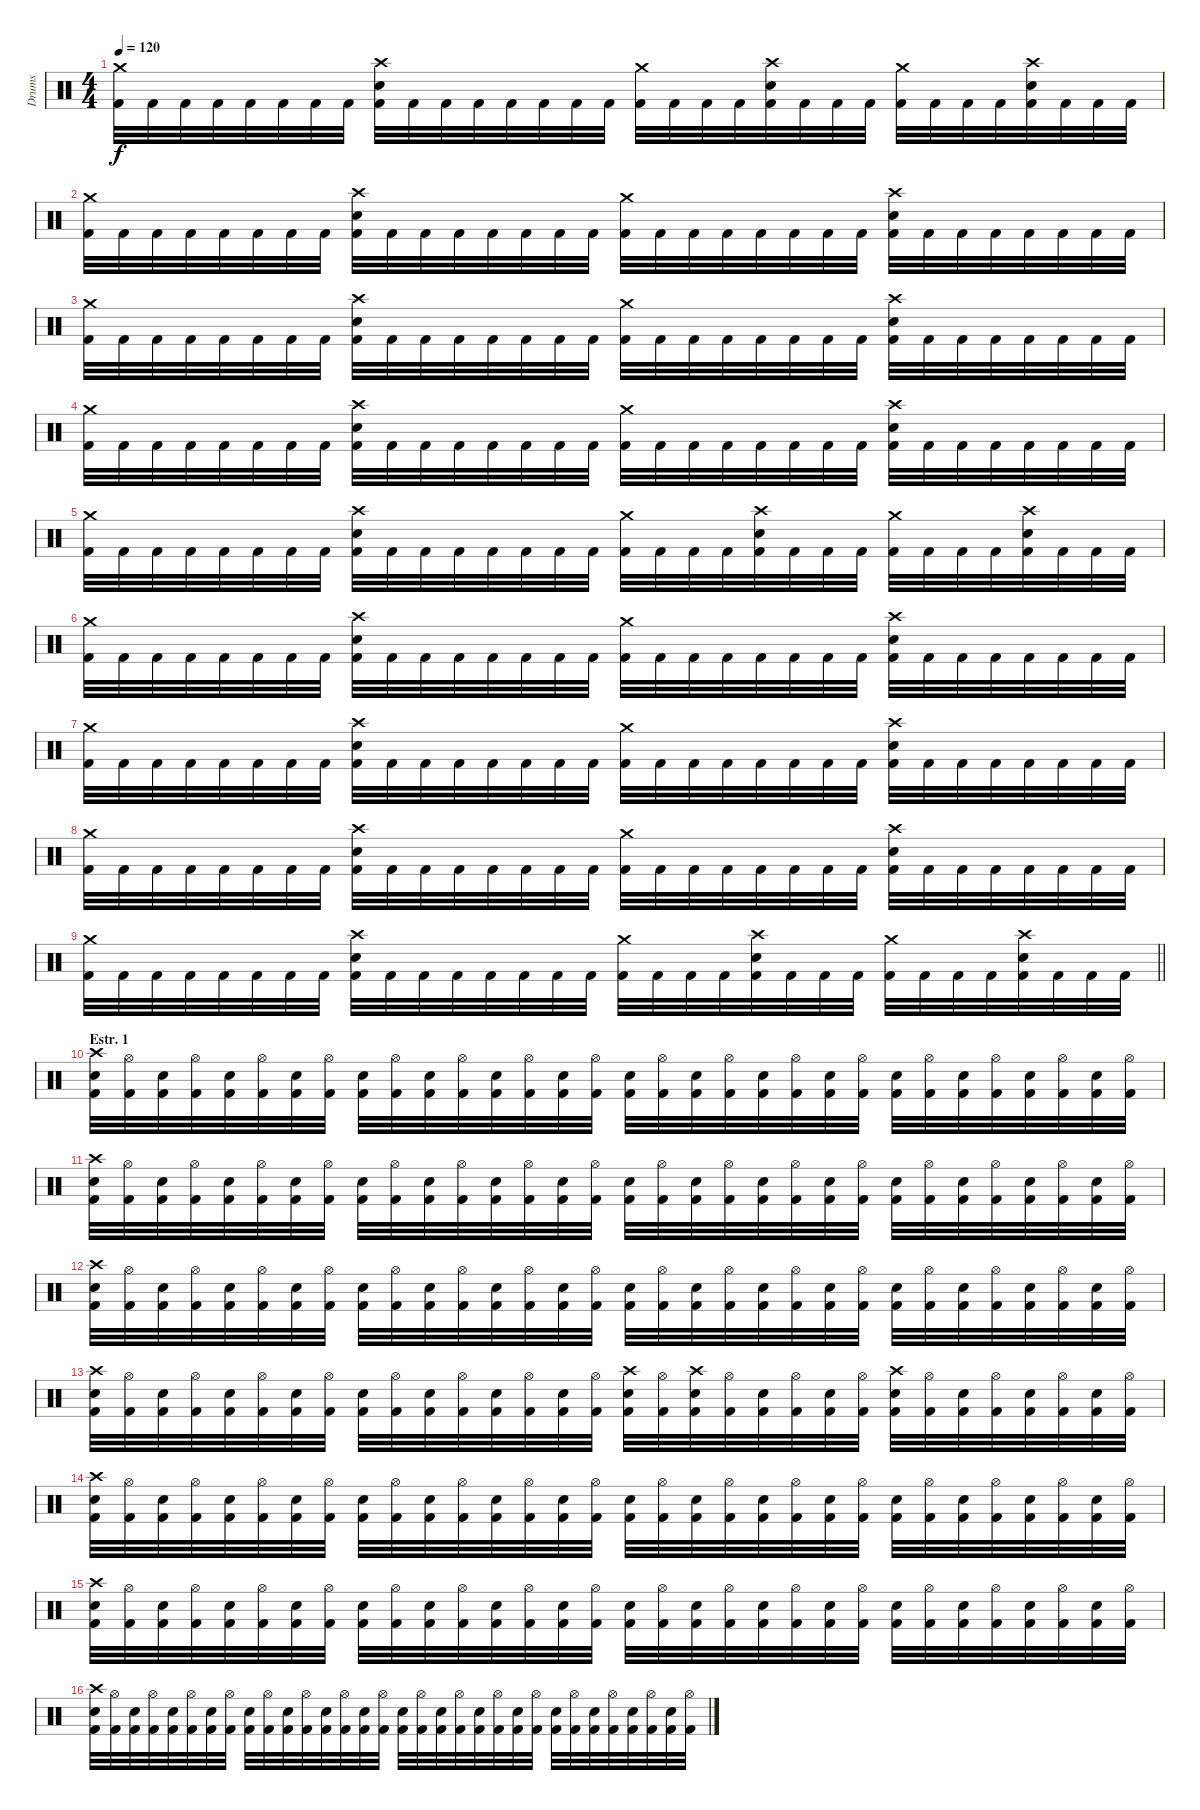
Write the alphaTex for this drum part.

\track ("Drums" "Drums") {instrument percussion}
\staff {score}
\articulation defaults
\ts (4 4)
\tempo 120
\clef neutral
\ks c
("Kick (hit) 2" "Crash medium (hit)").32{dy f} "Kick (hit) 2".32 "Kick (hit) 2".32 "Kick (hit) 2".32 "Kick (hit) 2".32 "Kick (hit) 2".32 "Kick (hit) 2".32 "Kick (hit) 2".32 ("Kick (hit) 2" "Electric Snare (hit)" "Crash high (hit)").32 "Kick (hit) 2".32 "Kick (hit) 2".32 "Kick (hit) 2".32 "Kick (hit) 2".32 "Kick (hit) 2".32 "Kick (hit) 2".32 "Kick (hit) 2".32 ("Kick (hit) 2" "Crash medium (hit)").32 "Kick (hit) 2".32 "Kick (hit) 2".32 "Kick (hit) 2".32 ("Kick (hit) 2" "Electric Snare (hit)" "Crash high (hit)").32 "Kick (hit) 2".32 "Kick (hit) 2".32 "Kick (hit) 2".32 ("Kick (hit) 2" "Crash medium (hit)").32 "Kick (hit) 2".32 "Kick (hit) 2".32 "Kick (hit) 2".32 ("Kick (hit) 2" "Electric Snare (hit)" "Crash high (hit)").32 "Kick (hit) 2".32 "Kick (hit) 2".32 "Kick (hit) 2".32 |
("Kick (hit) 2" "Crash medium (hit)").32 "Kick (hit) 2".32 "Kick (hit) 2".32 "Kick (hit) 2".32 "Kick (hit) 2".32 "Kick (hit) 2".32 "Kick (hit) 2".32 "Kick (hit) 2".32 ("Kick (hit) 2" "Electric Snare (hit)" "Crash high (hit)").32 "Kick (hit) 2".32 "Kick (hit) 2".32 "Kick (hit) 2".32 "Kick (hit) 2".32 "Kick (hit) 2".32 "Kick (hit) 2".32 "Kick (hit) 2".32 ("Kick (hit) 2" "Crash medium (hit)").32 "Kick (hit) 2".32 "Kick (hit) 2".32 "Kick (hit) 2".32 "Kick (hit) 2".32 "Kick (hit) 2".32 "Kick (hit) 2".32 "Kick (hit) 2".32 ("Kick (hit) 2" "Electric Snare (hit)" "Crash high (hit)").32 "Kick (hit) 2".32 "Kick (hit) 2".32 "Kick (hit) 2".32 "Kick (hit) 2".32 "Kick (hit) 2".32 "Kick (hit) 2".32 "Kick (hit) 2".32 |
("Kick (hit) 2" "Crash medium (hit)").32 "Kick (hit) 2".32 "Kick (hit) 2".32 "Kick (hit) 2".32 "Kick (hit) 2".32 "Kick (hit) 2".32 "Kick (hit) 2".32 "Kick (hit) 2".32 ("Kick (hit) 2" "Electric Snare (hit)" "Crash high (hit)").32 "Kick (hit) 2".32 "Kick (hit) 2".32 "Kick (hit) 2".32 "Kick (hit) 2".32 "Kick (hit) 2".32 "Kick (hit) 2".32 "Kick (hit) 2".32 ("Kick (hit) 2" "Crash medium (hit)").32 "Kick (hit) 2".32 "Kick (hit) 2".32 "Kick (hit) 2".32 "Kick (hit) 2".32 "Kick (hit) 2".32 "Kick (hit) 2".32 "Kick (hit) 2".32 ("Kick (hit) 2" "Electric Snare (hit)" "Crash high (hit)").32 "Kick (hit) 2".32 "Kick (hit) 2".32 "Kick (hit) 2".32 "Kick (hit) 2".32 "Kick (hit) 2".32 "Kick (hit) 2".32 "Kick (hit) 2".32 |
("Kick (hit) 2" "Crash medium (hit)").32 "Kick (hit) 2".32 "Kick (hit) 2".32 "Kick (hit) 2".32 "Kick (hit) 2".32 "Kick (hit) 2".32 "Kick (hit) 2".32 "Kick (hit) 2".32 ("Kick (hit) 2" "Electric Snare (hit)" "Crash high (hit)").32 "Kick (hit) 2".32 "Kick (hit) 2".32 "Kick (hit) 2".32 "Kick (hit) 2".32 "Kick (hit) 2".32 "Kick (hit) 2".32 "Kick (hit) 2".32 ("Kick (hit) 2" "Crash medium (hit)").32 "Kick (hit) 2".32 "Kick (hit) 2".32 "Kick (hit) 2".32 "Kick (hit) 2".32 "Kick (hit) 2".32 "Kick (hit) 2".32 "Kick (hit) 2".32 ("Kick (hit) 2" "Electric Snare (hit)" "Crash high (hit)").32 "Kick (hit) 2".32 "Kick (hit) 2".32 "Kick (hit) 2".32 "Kick (hit) 2".32 "Kick (hit) 2".32 "Kick (hit) 2".32 "Kick (hit) 2".32 |
("Kick (hit) 2" "Crash medium (hit)").32 "Kick (hit) 2".32 "Kick (hit) 2".32 "Kick (hit) 2".32 "Kick (hit) 2".32 "Kick (hit) 2".32 "Kick (hit) 2".32 "Kick (hit) 2".32 ("Kick (hit) 2" "Electric Snare (hit)" "Crash high (hit)").32 "Kick (hit) 2".32 "Kick (hit) 2".32 "Kick (hit) 2".32 "Kick (hit) 2".32 "Kick (hit) 2".32 "Kick (hit) 2".32 "Kick (hit) 2".32 ("Kick (hit) 2" "Crash medium (hit)").32 "Kick (hit) 2".32 "Kick (hit) 2".32 "Kick (hit) 2".32 ("Kick (hit) 2" "Electric Snare (hit)" "Crash high (hit)").32 "Kick (hit) 2".32 "Kick (hit) 2".32 "Kick (hit) 2".32 ("Kick (hit) 2" "Crash medium (hit)").32 "Kick (hit) 2".32 "Kick (hit) 2".32 "Kick (hit) 2".32 ("Kick (hit) 2" "Electric Snare (hit)" "Crash high (hit)").32 "Kick (hit) 2".32 "Kick (hit) 2".32 "Kick (hit) 2".32 |
("Kick (hit) 2" "Crash medium (hit)").32 "Kick (hit) 2".32 "Kick (hit) 2".32 "Kick (hit) 2".32 "Kick (hit) 2".32 "Kick (hit) 2".32 "Kick (hit) 2".32 "Kick (hit) 2".32 ("Kick (hit) 2" "Electric Snare (hit)" "Crash high (hit)").32 "Kick (hit) 2".32 "Kick (hit) 2".32 "Kick (hit) 2".32 "Kick (hit) 2".32 "Kick (hit) 2".32 "Kick (hit) 2".32 "Kick (hit) 2".32 ("Kick (hit) 2" "Crash medium (hit)").32 "Kick (hit) 2".32 "Kick (hit) 2".32 "Kick (hit) 2".32 "Kick (hit) 2".32 "Kick (hit) 2".32 "Kick (hit) 2".32 "Kick (hit) 2".32 ("Kick (hit) 2" "Electric Snare (hit)" "Crash high (hit)").32 "Kick (hit) 2".32 "Kick (hit) 2".32 "Kick (hit) 2".32 "Kick (hit) 2".32 "Kick (hit) 2".32 "Kick (hit) 2".32 "Kick (hit) 2".32 |
("Kick (hit) 2" "Crash medium (hit)").32 "Kick (hit) 2".32 "Kick (hit) 2".32 "Kick (hit) 2".32 "Kick (hit) 2".32 "Kick (hit) 2".32 "Kick (hit) 2".32 "Kick (hit) 2".32 ("Kick (hit) 2" "Electric Snare (hit)" "Crash high (hit)").32 "Kick (hit) 2".32 "Kick (hit) 2".32 "Kick (hit) 2".32 "Kick (hit) 2".32 "Kick (hit) 2".32 "Kick (hit) 2".32 "Kick (hit) 2".32 ("Kick (hit) 2" "Crash medium (hit)").32 "Kick (hit) 2".32 "Kick (hit) 2".32 "Kick (hit) 2".32 "Kick (hit) 2".32 "Kick (hit) 2".32 "Kick (hit) 2".32 "Kick (hit) 2".32 ("Kick (hit) 2" "Electric Snare (hit)" "Crash high (hit)").32 "Kick (hit) 2".32 "Kick (hit) 2".32 "Kick (hit) 2".32 "Kick (hit) 2".32 "Kick (hit) 2".32 "Kick (hit) 2".32 "Kick (hit) 2".32 |
("Kick (hit) 2" "Crash medium (hit)").32 "Kick (hit) 2".32 "Kick (hit) 2".32 "Kick (hit) 2".32 "Kick (hit) 2".32 "Kick (hit) 2".32 "Kick (hit) 2".32 "Kick (hit) 2".32 ("Kick (hit) 2" "Electric Snare (hit)" "Crash high (hit)").32 "Kick (hit) 2".32 "Kick (hit) 2".32 "Kick (hit) 2".32 "Kick (hit) 2".32 "Kick (hit) 2".32 "Kick (hit) 2".32 "Kick (hit) 2".32 ("Kick (hit) 2" "Crash medium (hit)").32 "Kick (hit) 2".32 "Kick (hit) 2".32 "Kick (hit) 2".32 "Kick (hit) 2".32 "Kick (hit) 2".32 "Kick (hit) 2".32 "Kick (hit) 2".32 ("Kick (hit) 2" "Electric Snare (hit)" "Crash high (hit)").32 "Kick (hit) 2".32 "Kick (hit) 2".32 "Kick (hit) 2".32 "Kick (hit) 2".32 "Kick (hit) 2".32 "Kick (hit) 2".32 "Kick (hit) 2".32 |
\barLineRight lightlight
("Kick (hit) 2" "Crash medium (hit)").32 "Kick (hit) 2".32 "Kick (hit) 2".32 "Kick (hit) 2".32 "Kick (hit) 2".32 "Kick (hit) 2".32 "Kick (hit) 2".32 "Kick (hit) 2".32 ("Kick (hit) 2" "Electric Snare (hit)" "Crash high (hit)").32 "Kick (hit) 2".32 "Kick (hit) 2".32 "Kick (hit) 2".32 "Kick (hit) 2".32 "Kick (hit) 2".32 "Kick (hit) 2".32 "Kick (hit) 2".32 ("Kick (hit) 2" "Crash medium (hit)").32 "Kick (hit) 2".32 "Kick (hit) 2".32 "Kick (hit) 2".32 ("Kick (hit) 2" "Electric Snare (hit)" "Crash high (hit)").32 "Kick (hit) 2".32 "Kick (hit) 2".32 "Kick (hit) 2".32 ("Kick (hit) 2" "Crash medium (hit)").32 "Kick (hit) 2".32 "Kick (hit) 2".32 "Kick (hit) 2".32 ("Kick (hit) 2" "Electric Snare (hit)" "Crash high (hit)").32 "Kick (hit) 2".32 "Kick (hit) 2".32 "Kick (hit) 2".32 |
\section ("" "Estr. 1")
("Kick (hit) 2" "Electric Snare (hit)" "Crash high (hit)").32 ("Kick (hit) 2" "Hi-Hat (open)").32 ("Kick (hit) 2" "Electric Snare (hit)").32 ("Kick (hit) 2" "Hi-Hat (open)").32 ("Kick (hit) 2" "Electric Snare (hit)").32 ("Kick (hit) 2" "Hi-Hat (open)").32 ("Kick (hit) 2" "Electric Snare (hit)").32 ("Kick (hit) 2" "Hi-Hat (open)").32 ("Kick (hit) 2" "Electric Snare (hit)").32 ("Kick (hit) 2" "Hi-Hat (open)").32 ("Kick (hit) 2" "Electric Snare (hit)").32 ("Kick (hit) 2" "Hi-Hat (open)").32 ("Kick (hit) 2" "Electric Snare (hit)").32 ("Kick (hit) 2" "Hi-Hat (open)").32 ("Kick (hit) 2" "Electric Snare (hit)").32 ("Kick (hit) 2" "Hi-Hat (open)").32 ("Kick (hit) 2" "Electric Snare (hit)").32 ("Kick (hit) 2" "Hi-Hat (open)").32 ("Kick (hit) 2" "Electric Snare (hit)").32 ("Kick (hit) 2" "Hi-Hat (open)").32 ("Kick (hit) 2" "Electric Snare (hit)").32 ("Kick (hit) 2" "Hi-Hat (open)").32 ("Kick (hit) 2" "Electric Snare (hit)").32 ("Kick (hit) 2" "Hi-Hat (open)").32 ("Kick (hit) 2" "Electric Snare (hit)").32 ("Kick (hit) 2" "Hi-Hat (open)").32 ("Kick (hit) 2" "Electric Snare (hit)").32 ("Kick (hit) 2" "Hi-Hat (open)").32 ("Kick (hit) 2" "Electric Snare (hit)").32 ("Kick (hit) 2" "Hi-Hat (open)").32 ("Kick (hit) 2" "Electric Snare (hit)").32 ("Kick (hit) 2" "Hi-Hat (open)").32 |
("Kick (hit) 2" "Electric Snare (hit)" "Crash high (hit)").32 ("Kick (hit) 2" "Hi-Hat (open)").32 ("Kick (hit) 2" "Electric Snare (hit)").32 ("Kick (hit) 2" "Hi-Hat (open)").32 ("Kick (hit) 2" "Electric Snare (hit)").32 ("Kick (hit) 2" "Hi-Hat (open)").32 ("Kick (hit) 2" "Electric Snare (hit)").32 ("Kick (hit) 2" "Hi-Hat (open)").32 ("Kick (hit) 2" "Electric Snare (hit)").32 ("Kick (hit) 2" "Hi-Hat (open)").32 ("Kick (hit) 2" "Electric Snare (hit)").32 ("Kick (hit) 2" "Hi-Hat (open)").32 ("Kick (hit) 2" "Electric Snare (hit)").32 ("Kick (hit) 2" "Hi-Hat (open)").32 ("Kick (hit) 2" "Electric Snare (hit)").32 ("Kick (hit) 2" "Hi-Hat (open)").32 ("Kick (hit) 2" "Electric Snare (hit)").32 ("Kick (hit) 2" "Hi-Hat (open)").32 ("Kick (hit) 2" "Electric Snare (hit)").32 ("Kick (hit) 2" "Hi-Hat (open)").32 ("Kick (hit) 2" "Electric Snare (hit)").32 ("Kick (hit) 2" "Hi-Hat (open)").32 ("Kick (hit) 2" "Electric Snare (hit)").32 ("Kick (hit) 2" "Hi-Hat (open)").32 ("Kick (hit) 2" "Electric Snare (hit)").32 ("Kick (hit) 2" "Hi-Hat (open)").32 ("Kick (hit) 2" "Electric Snare (hit)").32 ("Kick (hit) 2" "Hi-Hat (open)").32 ("Kick (hit) 2" "Electric Snare (hit)").32 ("Kick (hit) 2" "Hi-Hat (open)").32 ("Kick (hit) 2" "Electric Snare (hit)").32 ("Kick (hit) 2" "Hi-Hat (open)").32 |
("Kick (hit) 2" "Electric Snare (hit)" "Crash high (hit)").32 ("Kick (hit) 2" "Hi-Hat (open)").32 ("Kick (hit) 2" "Electric Snare (hit)").32 ("Kick (hit) 2" "Hi-Hat (open)").32 ("Kick (hit) 2" "Electric Snare (hit)").32 ("Kick (hit) 2" "Hi-Hat (open)").32 ("Kick (hit) 2" "Electric Snare (hit)").32 ("Kick (hit) 2" "Hi-Hat (open)").32 ("Kick (hit) 2" "Electric Snare (hit)").32 ("Kick (hit) 2" "Hi-Hat (open)").32 ("Kick (hit) 2" "Electric Snare (hit)").32 ("Kick (hit) 2" "Hi-Hat (open)").32 ("Kick (hit) 2" "Electric Snare (hit)").32 ("Kick (hit) 2" "Hi-Hat (open)").32 ("Kick (hit) 2" "Electric Snare (hit)").32 ("Kick (hit) 2" "Hi-Hat (open)").32 ("Kick (hit) 2" "Electric Snare (hit)").32 ("Kick (hit) 2" "Hi-Hat (open)").32 ("Kick (hit) 2" "Electric Snare (hit)").32 ("Kick (hit) 2" "Hi-Hat (open)").32 ("Kick (hit) 2" "Electric Snare (hit)").32 ("Kick (hit) 2" "Hi-Hat (open)").32 ("Kick (hit) 2" "Electric Snare (hit)").32 ("Kick (hit) 2" "Hi-Hat (open)").32 ("Kick (hit) 2" "Electric Snare (hit)").32 ("Kick (hit) 2" "Hi-Hat (open)").32 ("Kick (hit) 2" "Electric Snare (hit)").32 ("Kick (hit) 2" "Hi-Hat (open)").32 ("Kick (hit) 2" "Electric Snare (hit)").32 ("Kick (hit) 2" "Hi-Hat (open)").32 ("Kick (hit) 2" "Electric Snare (hit)").32 ("Kick (hit) 2" "Hi-Hat (open)").32 |
("Kick (hit) 2" "Electric Snare (hit)" "Crash high (hit)").32 ("Kick (hit) 2" "Hi-Hat (open)").32 ("Kick (hit) 2" "Electric Snare (hit)").32 ("Kick (hit) 2" "Hi-Hat (open)").32 ("Kick (hit) 2" "Electric Snare (hit)").32 ("Kick (hit) 2" "Hi-Hat (open)").32 ("Kick (hit) 2" "Electric Snare (hit)").32 ("Kick (hit) 2" "Hi-Hat (open)").32 ("Kick (hit) 2" "Electric Snare (hit)").32 ("Kick (hit) 2" "Hi-Hat (open)").32 ("Kick (hit) 2" "Electric Snare (hit)").32 ("Kick (hit) 2" "Hi-Hat (open)").32 ("Kick (hit) 2" "Electric Snare (hit)").32 ("Kick (hit) 2" "Hi-Hat (open)").32 ("Kick (hit) 2" "Electric Snare (hit)").32 ("Kick (hit) 2" "Hi-Hat (open)").32 ("Kick (hit) 2" "Electric Snare (hit)" "Crash high (hit)").32 ("Kick (hit) 2" "Hi-Hat (open)").32 ("Kick (hit) 2" "Electric Snare (hit)" "Crash high (hit)").32 ("Kick (hit) 2" "Hi-Hat (open)").32 ("Kick (hit) 2" "Electric Snare (hit)").32 ("Kick (hit) 2" "Hi-Hat (open)").32 ("Kick (hit) 2" "Electric Snare (hit)").32 ("Kick (hit) 2" "Hi-Hat (open)").32 ("Kick (hit) 2" "Electric Snare (hit)" "Crash high (hit)").32 ("Kick (hit) 2" "Hi-Hat (open)").32 ("Kick (hit) 2" "Electric Snare (hit)").32 ("Kick (hit) 2" "Hi-Hat (open)").32 ("Kick (hit) 2" "Electric Snare (hit)").32 ("Kick (hit) 2" "Hi-Hat (open)").32 ("Kick (hit) 2" "Electric Snare (hit)").32 ("Kick (hit) 2" "Hi-Hat (open)").32 |
("Kick (hit) 2" "Electric Snare (hit)" "Crash high (hit)").32 ("Kick (hit) 2" "Hi-Hat (open)").32 ("Kick (hit) 2" "Electric Snare (hit)").32 ("Kick (hit) 2" "Hi-Hat (open)").32 ("Kick (hit) 2" "Electric Snare (hit)").32 ("Kick (hit) 2" "Hi-Hat (open)").32 ("Kick (hit) 2" "Electric Snare (hit)").32 ("Kick (hit) 2" "Hi-Hat (open)").32 ("Kick (hit) 2" "Electric Snare (hit)").32 ("Kick (hit) 2" "Hi-Hat (open)").32 ("Kick (hit) 2" "Electric Snare (hit)").32 ("Kick (hit) 2" "Hi-Hat (open)").32 ("Kick (hit) 2" "Electric Snare (hit)").32 ("Kick (hit) 2" "Hi-Hat (open)").32 ("Kick (hit) 2" "Electric Snare (hit)").32 ("Kick (hit) 2" "Hi-Hat (open)").32 ("Kick (hit) 2" "Electric Snare (hit)").32 ("Kick (hit) 2" "Hi-Hat (open)").32 ("Kick (hit) 2" "Electric Snare (hit)").32 ("Kick (hit) 2" "Hi-Hat (open)").32 ("Kick (hit) 2" "Electric Snare (hit)").32 ("Kick (hit) 2" "Hi-Hat (open)").32 ("Kick (hit) 2" "Electric Snare (hit)").32 ("Kick (hit) 2" "Hi-Hat (open)").32 ("Kick (hit) 2" "Electric Snare (hit)").32 ("Kick (hit) 2" "Hi-Hat (open)").32 ("Kick (hit) 2" "Electric Snare (hit)").32 ("Kick (hit) 2" "Hi-Hat (open)").32 ("Kick (hit) 2" "Electric Snare (hit)").32 ("Kick (hit) 2" "Hi-Hat (open)").32 ("Kick (hit) 2" "Electric Snare (hit)").32 ("Kick (hit) 2" "Hi-Hat (open)").32 |
("Kick (hit) 2" "Electric Snare (hit)" "Crash high (hit)").32 ("Kick (hit) 2" "Hi-Hat (open)").32 ("Kick (hit) 2" "Electric Snare (hit)").32 ("Kick (hit) 2" "Hi-Hat (open)").32 ("Kick (hit) 2" "Electric Snare (hit)").32 ("Kick (hit) 2" "Hi-Hat (open)").32 ("Kick (hit) 2" "Electric Snare (hit)").32 ("Kick (hit) 2" "Hi-Hat (open)").32 ("Kick (hit) 2" "Electric Snare (hit)").32 ("Kick (hit) 2" "Hi-Hat (open)").32 ("Kick (hit) 2" "Electric Snare (hit)").32 ("Kick (hit) 2" "Hi-Hat (open)").32 ("Kick (hit) 2" "Electric Snare (hit)").32 ("Kick (hit) 2" "Hi-Hat (open)").32 ("Kick (hit) 2" "Electric Snare (hit)").32 ("Kick (hit) 2" "Hi-Hat (open)").32 ("Kick (hit) 2" "Electric Snare (hit)").32 ("Kick (hit) 2" "Hi-Hat (open)").32 ("Kick (hit) 2" "Electric Snare (hit)").32 ("Kick (hit) 2" "Hi-Hat (open)").32 ("Kick (hit) 2" "Electric Snare (hit)").32 ("Kick (hit) 2" "Hi-Hat (open)").32 ("Kick (hit) 2" "Electric Snare (hit)").32 ("Kick (hit) 2" "Hi-Hat (open)").32 ("Kick (hit) 2" "Electric Snare (hit)").32 ("Kick (hit) 2" "Hi-Hat (open)").32 ("Kick (hit) 2" "Electric Snare (hit)").32 ("Kick (hit) 2" "Hi-Hat (open)").32 ("Kick (hit) 2" "Electric Snare (hit)").32 ("Kick (hit) 2" "Hi-Hat (open)").32 ("Kick (hit) 2" "Electric Snare (hit)").32 ("Kick (hit) 2" "Hi-Hat (open)").32 |
("Kick (hit) 2" "Electric Snare (hit)" "Crash high (hit)").32 ("Kick (hit) 2" "Hi-Hat (open)").32 ("Kick (hit) 2" "Electric Snare (hit)").32 ("Kick (hit) 2" "Hi-Hat (open)").32 ("Kick (hit) 2" "Electric Snare (hit)").32 ("Kick (hit) 2" "Hi-Hat (open)").32 ("Kick (hit) 2" "Electric Snare (hit)").32 ("Kick (hit) 2" "Hi-Hat (open)").32 ("Kick (hit) 2" "Electric Snare (hit)").32 ("Kick (hit) 2" "Hi-Hat (open)").32 ("Kick (hit) 2" "Electric Snare (hit)").32 ("Kick (hit) 2" "Hi-Hat (open)").32 ("Kick (hit) 2" "Electric Snare (hit)").32 ("Kick (hit) 2" "Hi-Hat (open)").32 ("Kick (hit) 2" "Electric Snare (hit)").32 ("Kick (hit) 2" "Hi-Hat (open)").32 ("Kick (hit) 2" "Electric Snare (hit)").32 ("Kick (hit) 2" "Hi-Hat (open)").32 ("Kick (hit) 2" "Electric Snare (hit)").32 ("Kick (hit) 2" "Hi-Hat (open)").32 ("Kick (hit) 2" "Electric Snare (hit)").32 ("Kick (hit) 2" "Hi-Hat (open)").32 ("Kick (hit) 2" "Electric Snare (hit)").32 ("Kick (hit) 2" "Hi-Hat (open)").32 ("Kick (hit) 2" "Electric Snare (hit)").32 ("Kick (hit) 2" "Hi-Hat (open)").32 ("Kick (hit) 2" "Electric Snare (hit)").32 ("Kick (hit) 2" "Hi-Hat (open)").32 ("Kick (hit) 2" "Electric Snare (hit)").32 ("Kick (hit) 2" "Hi-Hat (open)").32 ("Kick (hit) 2" "Electric Snare (hit)").32 ("Kick (hit) 2" "Hi-Hat (open)").32
